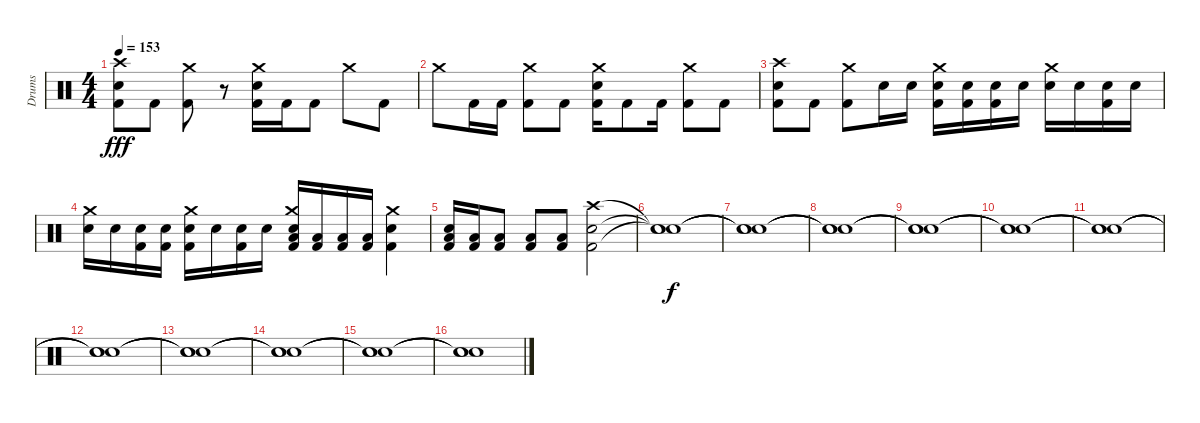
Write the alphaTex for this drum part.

\track ("Drums" "Drums") {instrument percussion}
\staff {score}
\articulation defaults
\ts (4 4)
\tempo 153
\clef neutral
\ks c
("Crash high (hit)" "Snare (hit) 2" "Kick (hit) 2").8{dy fff} "Kick (hit) 2".8 ("Crash medium (hit)" "Kick (hit) 2").8 r.8 ("Snare (hit) 2" "Crash medium (hit)" "Kick (hit) 2").16 "Kick (hit) 2".16 "Kick (hit) 2".8 "Crash medium (hit)".8 "Kick (hit) 2".8 |
"Crash medium (hit)".8 "Kick (hit) 2".16 "Kick (hit) 2".16 ("Crash medium (hit)" "Kick (hit) 2").8 "Kick (hit) 2".8 ("Snare (hit) 2" "Crash medium (hit)" "Kick (hit) 2").16 "Kick (hit) 2".8 "Kick (hit) 2".16 ("Crash medium (hit)" "Kick (hit) 2").8 "Kick (hit) 2".8 |
("Crash high (hit)" "Snare (hit) 2" "Kick (hit) 2").8 "Kick (hit) 2".8 ("Crash medium (hit)" "Kick (hit) 2").8 "Snare (hit) 2".16 "Snare (hit) 2".16 ("Crash medium (hit)" "Snare (hit) 2" "Kick (hit) 2").16 ("Snare (hit) 2" "Kick (hit) 2").16 ("Snare (hit) 2" "Kick (hit) 2").16 "Snare (hit) 2".16 ("Crash medium (hit)" "Snare (hit) 2").16 "Snare (hit) 2".16 ("Snare (hit) 2" "Kick (hit) 2").16 "Snare (hit) 2".16 |
("Crash medium (hit)" "Snare (hit) 2").16 "Snare (hit) 2".16 ("Snare (hit) 2" "Kick (hit) 2").16 ("Snare (hit) 2" "Kick (hit) 2").16 ("Crash medium (hit)" "Snare (hit) 2" "Kick (hit) 2").16 "Snare (hit) 2".16 ("Snare (hit) 2" "Kick (hit) 2").16 "Snare (hit) 2".16 ("Snare (hit) 2" "Low Floor Tom (hit)" "Crash medium (hit)" "Kick (hit) 2").16 ("Low Floor Tom (hit)" "Kick (hit) 2").16 ("Low Floor Tom (hit)" "Kick (hit) 2").16 ("Low Floor Tom (hit)" "Kick (hit) 2").16 ("Crash medium (hit)" "Snare (hit) 2" "Kick (hit) 2").4 |
("Low Floor Tom (hit)" "Snare (hit) 2" "Kick (hit) 2").16 ("Low Floor Tom (hit)" "Kick (hit) 2").16 ("Low Floor Tom (hit)" "Kick (hit) 2").8 ("Low Floor Tom (hit)" "Kick (hit) 2").8 ("Low Floor Tom (hit)" "Kick (hit) 2").8 ("Crash high (hit)" "Snare (hit) 2" "Kick (hit) 2").2 |
("Snare (hit)"{t} "Snare (hit)"{t} "Snare (hit)"{t}).1{dy f} |
("Snare (hit)"{t} "Snare (hit)"{t} "Snare (hit)"{t}).1 |
("Snare (hit)"{t} "Snare (hit)"{t} "Snare (hit)"{t}).1 |
("Snare (hit)"{t} "Snare (hit)"{t} "Snare (hit)"{t}).1 |
("Snare (hit)"{t} "Snare (hit)"{t} "Snare (hit)"{t}).1 |
("Snare (hit)"{t} "Snare (hit)"{t} "Snare (hit)"{t}).1 |
("Snare (hit)"{t} "Snare (hit)"{t} "Snare (hit)"{t}).1 |
("Snare (hit)"{t} "Snare (hit)"{t} "Snare (hit)"{t}).1 |
("Snare (hit)"{t} "Snare (hit)"{t} "Snare (hit)"{t}).1 |
("Snare (hit)"{t} "Snare (hit)"{t} "Snare (hit)"{t}).1 |
("Snare (hit)"{t} "Snare (hit)"{t} "Snare (hit)"{t}).1
